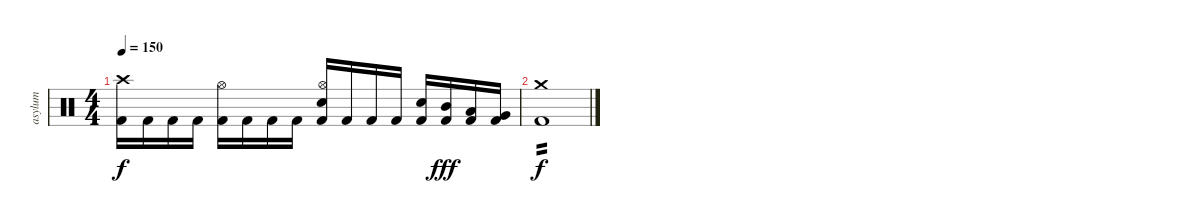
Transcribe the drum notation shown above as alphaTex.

\track ("asylum" "asylum") {instrument percussion}
\staff {score}
\articulation defaults
\ts (4 4)
\tempo 150
\clef neutral
\ks c
("Crash high (hit)" "Kick (hit) 2").16{dy f} "Kick (hit) 2".16 "Kick (hit) 2".16 "Kick (hit) 2".16 ("Hi-Hat (open)" "Kick (hit) 2").16 "Kick (hit) 2".16 "Kick (hit) 2".16 "Kick (hit) 2".16 ("Hi-Hat (open)" "Electric Snare (hit)" "Kick (hit) 2").16 "Kick (hit) 2".16 "Kick (hit) 2".16 "Kick (hit) 2".16 ("Electric Snare (hit)" "Kick (hit) 2").16 ("Mid Tom (hit)" "Kick (hit) 2").16{dy fff} ("Low Tom (hit)" "Kick (hit) 2").16 ("Very Low Tom (hit)" "Kick (hit) 2").16 |
("Crash medium (hit)" "Kick (hit) 2").1{tp 2 dy f}
